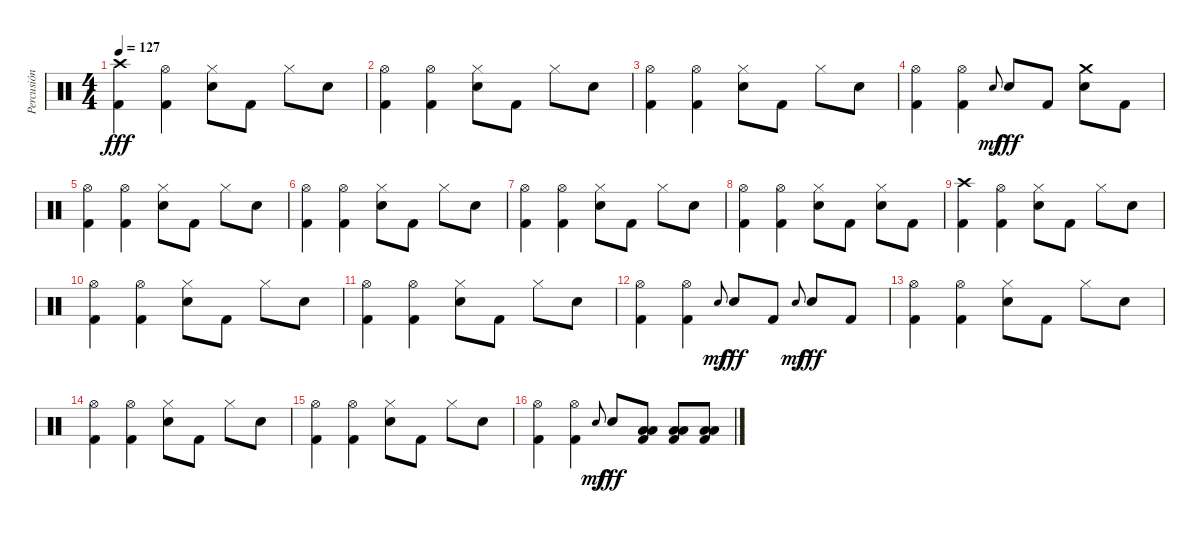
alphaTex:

\track ("Percusión" "Percusión") {instrument percussion}
\staff {score}
\articulation defaults
\ts (4 4)
\tempo 127
\clef neutral
\ks c
("Crash high (hit)" "Kick (hit) 2").4{dy fff} ("Hi-Hat (open)" "Kick (hit) 2").4 ("Hi-Hat (closed)" "Electric Snare (hit)").8 "Kick (hit) 2".8 "Hi-Hat (closed)".8 "Electric Snare (hit)".8 |
("Hi-Hat (open)" "Kick (hit) 2").4 ("Hi-Hat (open)" "Kick (hit) 2").4 ("Hi-Hat (closed)" "Electric Snare (hit)").8 "Kick (hit) 2".8 "Hi-Hat (closed)".8 "Electric Snare (hit)".8 |
("Hi-Hat (open)" "Kick (hit) 2").4 ("Hi-Hat (open)" "Kick (hit) 2").4 ("Hi-Hat (closed)" "Electric Snare (hit)").8 "Kick (hit) 2".8 "Hi-Hat (closed)".8 "Electric Snare (hit)".8 |
("Hi-Hat (open)" "Kick (hit) 2").4 ("Hi-Hat (open)" "Kick (hit) 2").4 "Electric Snare (hit)".8{gr onbeat dy mf} "Electric Snare (hit)".8{dy fff} "Kick (hit) 2".8 ("Crash medium (hit)" "Electric Snare (hit)").8 "Kick (hit) 2".8 |
("Hi-Hat (open)" "Kick (hit) 2").4 ("Hi-Hat (open)" "Kick (hit) 2").4 ("Hi-Hat (closed)" "Electric Snare (hit)").8 "Kick (hit) 2".8 "Hi-Hat (closed)".8 "Electric Snare (hit)".8 |
("Hi-Hat (open)" "Kick (hit) 2").4 ("Hi-Hat (open)" "Kick (hit) 2").4 ("Hi-Hat (closed)" "Electric Snare (hit)").8 "Kick (hit) 2".8 "Hi-Hat (closed)".8 "Electric Snare (hit)".8 |
("Hi-Hat (open)" "Kick (hit) 2").4 ("Hi-Hat (open)" "Kick (hit) 2").4 ("Hi-Hat (closed)" "Electric Snare (hit)").8 "Kick (hit) 2".8 "Hi-Hat (closed)".8 "Electric Snare (hit)".8 |
("Hi-Hat (open)" "Kick (hit) 2").4 ("Hi-Hat (open)" "Kick (hit) 2").4 ("Hi-Hat (closed)" "Electric Snare (hit)").8 "Kick (hit) 2".8 ("Hi-Hat (closed)" "Electric Snare (hit)").8 "Kick (hit) 2".8 |
("Crash high (hit)" "Kick (hit) 2").4 ("Hi-Hat (open)" "Kick (hit) 2").4 ("Hi-Hat (closed)" "Electric Snare (hit)").8 "Kick (hit) 2".8 "Hi-Hat (closed)".8 "Electric Snare (hit)".8 |
("Hi-Hat (open)" "Kick (hit) 2").4 ("Hi-Hat (open)" "Kick (hit) 2").4 ("Hi-Hat (closed)" "Electric Snare (hit)").8 "Kick (hit) 2".8 "Hi-Hat (closed)".8 "Electric Snare (hit)".8 |
("Hi-Hat (open)" "Kick (hit) 2").4 ("Hi-Hat (open)" "Kick (hit) 2").4 ("Hi-Hat (closed)" "Electric Snare (hit)").8 "Kick (hit) 2".8 "Hi-Hat (closed)".8 "Electric Snare (hit)".8 |
("Hi-Hat (open)" "Kick (hit) 2").4 ("Hi-Hat (open)" "Kick (hit) 2").4 "Electric Snare (hit)".8{gr onbeat dy mf} "Electric Snare (hit)".8{dy fff} "Kick (hit) 2".8 "Electric Snare (hit)".8{gr onbeat dy mf} "Electric Snare (hit)".8{dy fff} "Kick (hit) 2".8 |
("Hi-Hat (open)" "Kick (hit) 2").4 ("Hi-Hat (open)" "Kick (hit) 2").4 ("Hi-Hat (closed)" "Electric Snare (hit)").8 "Kick (hit) 2".8 "Hi-Hat (closed)".8 "Electric Snare (hit)".8 |
("Hi-Hat (open)" "Kick (hit) 2").4 ("Hi-Hat (open)" "Kick (hit) 2").4 ("Hi-Hat (closed)" "Electric Snare (hit)").8 "Kick (hit) 2".8 "Hi-Hat (closed)".8 "Electric Snare (hit)".8 |
("Hi-Hat (open)" "Kick (hit) 2").4 ("Hi-Hat (open)" "Kick (hit) 2").4 ("Hi-Hat (closed)" "Electric Snare (hit)").8 "Kick (hit) 2".8 "Hi-Hat (closed)".8 "Electric Snare (hit)".8 |
("Hi-Hat (open)" "Kick (hit) 2").4 ("Hi-Hat (open)" "Kick (hit) 2").4 "Electric Snare (hit)".8{gr onbeat dy mf} "Electric Snare (hit)".8{dy fff} ("Low Tom (hit)" "Low Floor Tom (hit)" "Kick (hit) 2").8 ("Low Tom (hit)" "Low Floor Tom (hit)" "Kick (hit) 2").8 ("Low Tom (hit)" "Low Floor Tom (hit)" "Kick (hit) 2").8
